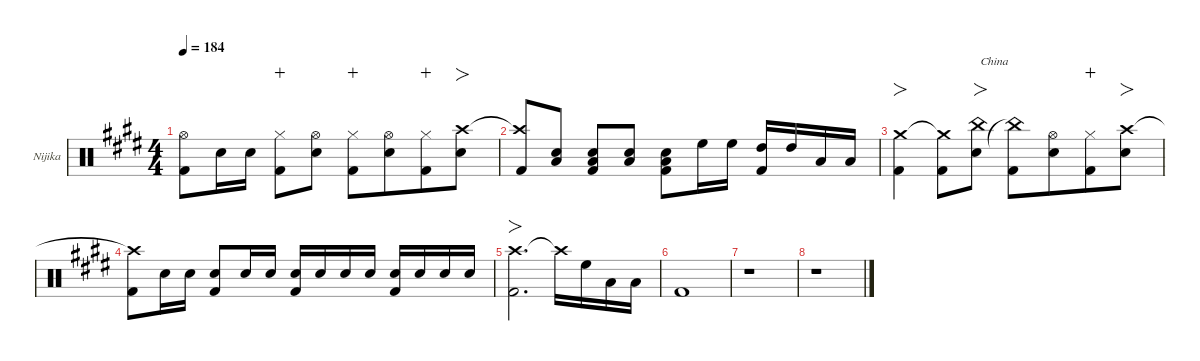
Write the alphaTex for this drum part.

\defaultSystemsLayout 4
\hideDynamics
\bracketExtendMode nobrackets
\firstSystemTrackNameOrientation horizontal
\track ("Nijika" "Nijika") {defaultSystemsLayout 4 instrument percussion}
\staff {score}
\articulation defaults
\ts (4 4)
\tempo 184
\clef neutral
\ks e
("Hi-Hat (open)"{acc forcenatural} "Kick (hit) 2"{acc forcenatural}).8{dy f beam Down} "Snare (hit) 2"{acc forcenatural}.16{beam Down} "Snare (hit) 2"{acc forcenatural}.16{dy mf beam Down beam split} ("Hi-Hat (closed)"{acc forcenatural} "Kick (hit) 2"{acc forcenatural}).8{dy mp wahc beam Down beam merge} ("Snare (hit) 2"{acc forcenatural} "Hi-Hat (open)"{acc forcenatural}).8{dy f beam Down beam split} ("Hi-Hat (closed)"{acc forcenatural} "Kick (hit) 2"{acc forcenatural}).8{dy mp wahc beam Down} ("Snare (hit) 2"{acc forcenatural} "Hi-Hat (open)"{acc forcenatural}).8{dy f beam Down beam merge} ("Hi-Hat (closed)"{acc forcenatural} "Kick (hit) 2"{acc forcenatural}).8{dy mp wahc beam Down} ("Crash high (hit)"{acc forcenatural} "Snare (hit) 2"{acc forcenatural}).8{fo dy f beam Down} |
("Crash high (hit)"{t acc forcenatural} "Kick (hit) 2"{acc forcenatural}).8{beam Up} ("Snare (hit) 2"{acc forcenatural} "Low Tom (hit)"{acc forcenatural}).8{beam Up} ("Snare (hit) 2"{acc forcenatural} "Low Tom (hit)"{acc forcenatural} "Kick (hit) 2"{acc forcenatural}).8{beam Up} ("Snare (hit) 2"{acc forcenatural} "Low Tom (hit)"{acc forcenatural}).8{beam Up} ("Snare (hit) 2"{acc forcenatural} "Low Tom (hit)"{acc forcenatural} "Kick (hit) 2"{acc forcenatural}).8{beam Down} "High Floor Tom (hit)"{acc forcenatural}.16{beam Down} "High Floor Tom (hit)"{acc forcenatural}.16{beam Down beam split} ("High Tom (hit)"{acc forcenatural} "Kick (hit) 2"{acc forcenatural}).16{beam Up} "High Tom (hit)"{acc forcenatural}.16{beam Up} "Low Tom (hit)"{acc forcenatural}.16{beam Up} "Low Tom (hit)"{acc forcenatural}.16{beam Up} |
("Crash medium (hit)"{acc forcenatural} "Kick (hit) 2"{acc forcenatural}).4{fo beam Down} ("Crash medium (hit)"{t acc forcenatural} "Kick (hit) 2"{acc forcenatural}).8{beam Down} ("Snare (hit) 2"{acc forcenatural} "China (hit)"{acc forcenatural}).8{fo txt "China" beam Down} ("China (hit)"{t acc forcenatural} "Kick (hit) 2"{acc forcenatural}).8{beam Down} ("Snare (hit) 2"{acc forcenatural} "Hi-Hat (open)"{acc forcenatural}).8{beam Down beam merge} ("Hi-Hat (closed)"{acc forcenatural} "Kick (hit) 2"{acc forcenatural}).8{dy mp wahc beam Down} ("Crash high (hit)"{acc forcenatural} "Snare (hit) 2"{acc forcenatural}).8{fo dy f beam Down} |
("Crash high (hit)"{t acc forcenatural} "Kick (hit) 2"{acc forcenatural}).8{beam Down} "Snare (hit) 2"{acc forcenatural}.16{beam Down} "Snare (hit) 2"{acc forcenatural}.16{dy mf beam Down beam split} ("Snare (hit) 2"{acc forcenatural} "Kick (hit) 2"{acc forcenatural}).8{dy f beam Up} "Snare (hit) 2"{acc forcenatural}.16{beam Up} "Snare (hit) 2"{acc forcenatural}.16{dy mf beam Up} ("Snare (hit) 2"{acc forcenatural} "Kick (hit) 2"{acc forcenatural}).16{dy f beam Up} "Snare (hit) 2"{acc forcenatural}.16{dy mf beam Up} "Snare (hit) 2"{acc forcenatural}.16{dy f beam Up} "Snare (hit) 2"{acc forcenatural}.16{dy mf beam Up beam split} ("Snare (hit) 2"{acc forcenatural} "Kick (hit) 2"{acc forcenatural}).16{dy f beam Up} "Snare (hit) 2"{acc forcenatural}.16{dy mf beam Up} "Snare (hit) 2"{acc forcenatural}.16{dy f beam Up} "Snare (hit) 2"{acc forcenatural}.16{dy mf beam Up} |
("Crash high (hit)"{acc forcenatural} "Kick (hit) 2"{acc forcenatural}).2{fo d dy f beam Down} "Crash high (hit)"{t acc forcenatural}.16{beam Down} "High Floor Tom (hit)"{acc forcenatural}.16{beam Down} "Low Tom (hit)"{acc forcenatural}.16{beam Down} "Low Tom (hit)"{acc forcenatural}.16{beam Down} |
"Kick (hit) 2"{acc forcenatural}.1{beam Up} |
r.1{beam Down} |
r.1{beam Down}
